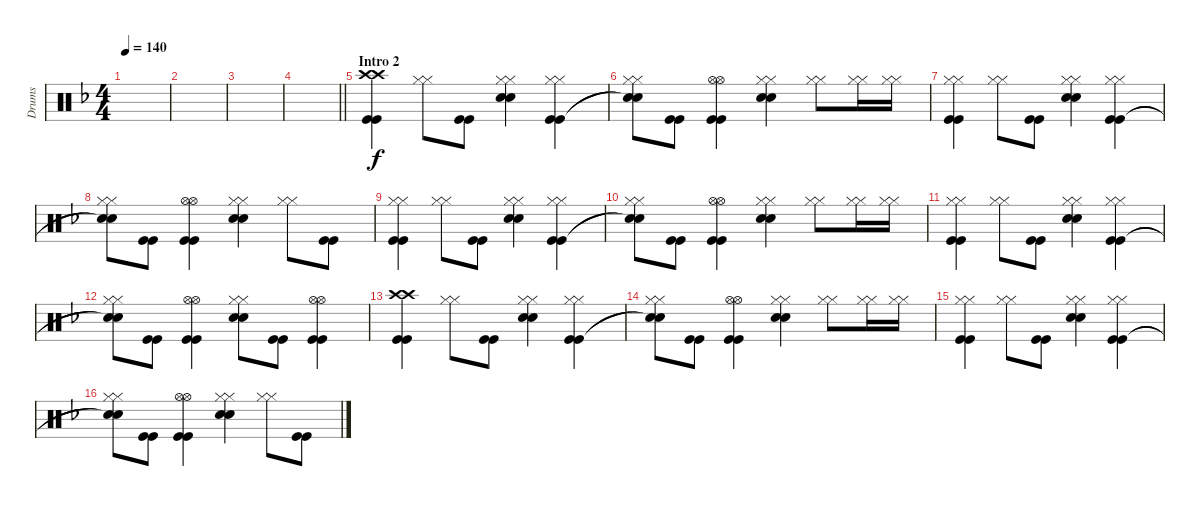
\track ("Drums" "Drums") {instrument percussion}
\staff {score}
\articulation defaults
\ts (4 4)
\tempo 140
\clef neutral
\ks f
|
|
|
\barLineRight lightlight
|
\section ("" "Intro 2")
("Crash high (hit)" "Crash high (hit)" "Kick (hit)" "Kick (hit)").4 ("Hi-Hat (closed)" "Hi-Hat (closed)").8 ("Kick (hit)" "Kick (hit)").8 ("Hi-Hat (closed)" "Hi-Hat (closed)" "Snare (hit) 2" "Snare (hit) 2").4 ("Hi-Hat (closed)" "Hi-Hat (closed)" "Kick (hit)" "Kick (hit)").4 |
("Hi-Hat (closed)" "Hi-Hat (closed)" "Snare (hit)"{t} "Snare (hit)"{t}).8 ("Kick (hit)" "Kick (hit)").8 ("Hi-Hat (open)" "Hi-Hat (open)" "Kick (hit)" "Kick (hit)").4 ("Hi-Hat (closed)" "Hi-Hat (closed)" "Snare (hit) 2" "Snare (hit) 2").4 ("Hi-Hat (closed)" "Hi-Hat (closed)").8 ("Hi-Hat (closed)" "Hi-Hat (closed)").16 ("Hi-Hat (closed)" "Hi-Hat (closed)").16 |
("Hi-Hat (closed)" "Hi-Hat (closed)" "Kick (hit)" "Kick (hit)").4 ("Hi-Hat (closed)" "Hi-Hat (closed)").8 ("Kick (hit)" "Kick (hit)").8 ("Hi-Hat (closed)" "Hi-Hat (closed)" "Snare (hit) 2" "Snare (hit) 2").4 ("Hi-Hat (closed)" "Hi-Hat (closed)" "Kick (hit)" "Kick (hit)").4 |
("Hi-Hat (closed)" "Hi-Hat (closed)" "Snare (hit)"{t} "Snare (hit)"{t}).8 ("Kick (hit)" "Kick (hit)").8 ("Hi-Hat (open)" "Hi-Hat (open)" "Kick (hit)" "Kick (hit)").4 ("Hi-Hat (closed)" "Hi-Hat (closed)" "Snare (hit) 2" "Snare (hit) 2").4 ("Hi-Hat (closed)" "Hi-Hat (closed)").8 ("Kick (hit)" "Kick (hit)").8 |
("Hi-Hat (closed)" "Hi-Hat (closed)" "Kick (hit)" "Kick (hit)").4 ("Hi-Hat (closed)" "Hi-Hat (closed)").8 ("Kick (hit)" "Kick (hit)").8 ("Hi-Hat (closed)" "Hi-Hat (closed)" "Snare (hit) 2" "Snare (hit) 2").4 ("Hi-Hat (closed)" "Hi-Hat (closed)" "Kick (hit)" "Kick (hit)").4 |
("Hi-Hat (closed)" "Hi-Hat (closed)" "Snare (hit)"{t} "Snare (hit)"{t}).8 ("Kick (hit)" "Kick (hit)").8 ("Hi-Hat (open)" "Hi-Hat (open)" "Kick (hit)" "Kick (hit)").4 ("Hi-Hat (closed)" "Hi-Hat (closed)" "Snare (hit) 2" "Snare (hit) 2").4 ("Hi-Hat (closed)" "Hi-Hat (closed)").8 ("Hi-Hat (closed)" "Hi-Hat (closed)").16 ("Hi-Hat (closed)" "Hi-Hat (closed)").16 |
("Hi-Hat (closed)" "Hi-Hat (closed)" "Kick (hit)" "Kick (hit)").4 ("Hi-Hat (closed)" "Hi-Hat (closed)").8 ("Kick (hit)" "Kick (hit)").8 ("Hi-Hat (closed)" "Hi-Hat (closed)" "Snare (hit) 2" "Snare (hit) 2").4 ("Hi-Hat (closed)" "Hi-Hat (closed)" "Kick (hit)" "Kick (hit)").4 |
("Hi-Hat (closed)" "Hi-Hat (closed)" "Snare (hit)"{t} "Snare (hit)"{t}).8 ("Kick (hit)" "Kick (hit)").8 ("Hi-Hat (open)" "Hi-Hat (open)" "Kick (hit)" "Kick (hit)").4 ("Hi-Hat (closed)" "Hi-Hat (closed)" "Snare (hit) 2" "Snare (hit) 2").8 ("Kick (hit)" "Kick (hit)").8 ("Hi-Hat (open)" "Hi-Hat (open)" "Kick (hit)" "Kick (hit)").4 |
("Crash high (hit)" "Crash high (hit)" "Kick (hit)" "Kick (hit)").4 ("Hi-Hat (closed)" "Hi-Hat (closed)").8 ("Kick (hit)" "Kick (hit)").8 ("Hi-Hat (closed)" "Hi-Hat (closed)" "Snare (hit) 2" "Snare (hit) 2").4 ("Hi-Hat (closed)" "Hi-Hat (closed)" "Kick (hit)" "Kick (hit)").4 |
("Hi-Hat (closed)" "Hi-Hat (closed)" "Snare (hit)"{t} "Snare (hit)"{t}).8 ("Kick (hit)" "Kick (hit)").8 ("Hi-Hat (open)" "Hi-Hat (open)" "Kick (hit)" "Kick (hit)").4 ("Hi-Hat (closed)" "Hi-Hat (closed)" "Snare (hit) 2" "Snare (hit) 2").4 ("Hi-Hat (closed)" "Hi-Hat (closed)").8 ("Hi-Hat (closed)" "Hi-Hat (closed)").16 ("Hi-Hat (closed)" "Hi-Hat (closed)").16 |
("Hi-Hat (closed)" "Hi-Hat (closed)" "Kick (hit)" "Kick (hit)").4 ("Hi-Hat (closed)" "Hi-Hat (closed)").8 ("Kick (hit)" "Kick (hit)").8 ("Hi-Hat (closed)" "Hi-Hat (closed)" "Snare (hit) 2" "Snare (hit) 2").4 ("Hi-Hat (closed)" "Hi-Hat (closed)" "Kick (hit)" "Kick (hit)").4 |
("Hi-Hat (closed)" "Hi-Hat (closed)" "Snare (hit)"{t} "Snare (hit)"{t}).8 ("Kick (hit)" "Kick (hit)").8 ("Hi-Hat (open)" "Hi-Hat (open)" "Kick (hit)" "Kick (hit)").4 ("Hi-Hat (closed)" "Hi-Hat (closed)" "Snare (hit) 2" "Snare (hit) 2").4 ("Hi-Hat (closed)" "Hi-Hat (closed)").8 ("Kick (hit)" "Kick (hit)").8
